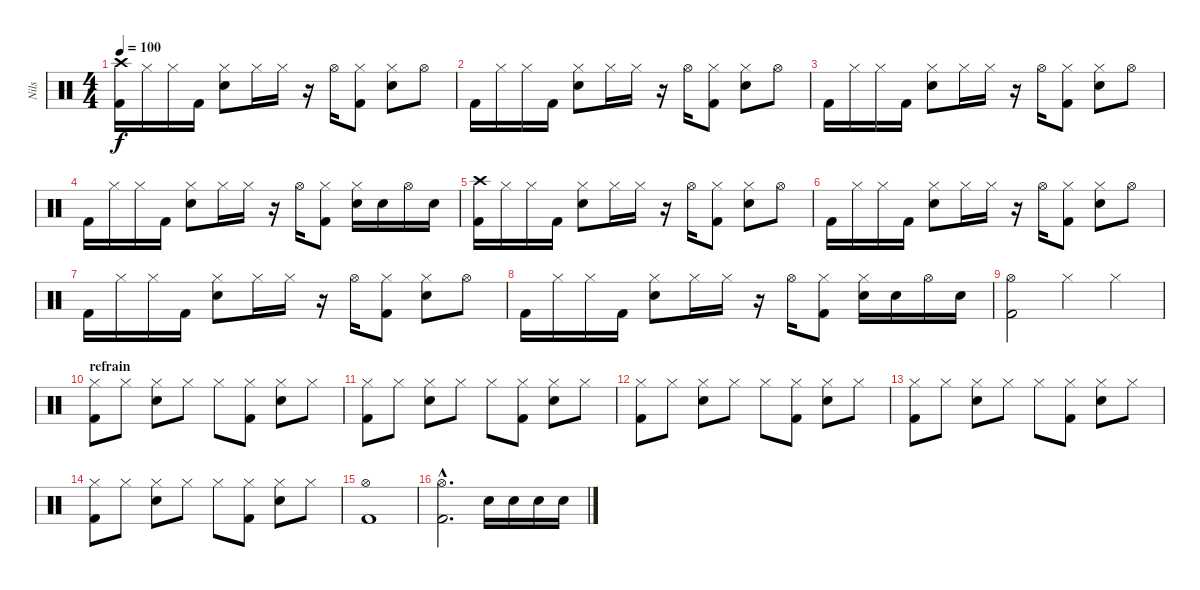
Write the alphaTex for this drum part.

\track ("Nils" "Nils") {instrument percussion}
\staff {score}
\articulation defaults
\ts (4 4)
\tempo 100
\clef neutral
\ks c
("Crash high (hit)" "Kick (hit) 2").16{dy f} "Hi-Hat (closed)".16 "Hi-Hat (closed)".16 "Kick (hit) 2".16 ("Hi-Hat (closed)" "Snare (hit) 2").8 "Hi-Hat (closed)".16 "Hi-Hat (closed)".16 r.16 "Hi-Hat (open)".16 ("Hi-Hat (closed)" "Kick (hit) 2").8 ("Hi-Hat (closed)" "Snare (hit) 2").8 "Hi-Hat (open)".8 |
"Kick (hit) 2".16 "Hi-Hat (closed)".16 "Hi-Hat (closed)".16 "Kick (hit) 2".16 ("Hi-Hat (closed)" "Snare (hit) 2").8 "Hi-Hat (closed)".16 "Hi-Hat (closed)".16 r.16 "Hi-Hat (open)".16 ("Hi-Hat (closed)" "Kick (hit) 2").8 ("Hi-Hat (closed)" "Snare (hit) 2").8 "Hi-Hat (open)".8 |
"Kick (hit) 2".16 "Hi-Hat (closed)".16 "Hi-Hat (closed)".16 "Kick (hit) 2".16 ("Hi-Hat (closed)" "Snare (hit) 2").8 "Hi-Hat (closed)".16 "Hi-Hat (closed)".16 r.16 "Hi-Hat (open)".16 ("Hi-Hat (closed)" "Kick (hit) 2").8 ("Hi-Hat (closed)" "Snare (hit) 2").8 "Hi-Hat (open)".8 |
"Kick (hit) 2".16 "Hi-Hat (closed)".16 "Hi-Hat (closed)".16 "Kick (hit) 2".16 ("Hi-Hat (closed)" "Snare (hit) 2").8 "Hi-Hat (closed)".16 "Hi-Hat (closed)".16 r.16 "Hi-Hat (open)".16 ("Hi-Hat (closed)" "Kick (hit) 2").8 ("Hi-Hat (closed)" "Snare (hit) 2").16 "Snare (hit) 2".16 "Hi-Hat (open)".16 "Snare (hit) 2".16 |
("Crash high (hit)" "Kick (hit) 2").16 "Hi-Hat (closed)".16 "Hi-Hat (closed)".16 "Kick (hit) 2".16 ("Hi-Hat (closed)" "Snare (hit) 2").8 "Hi-Hat (closed)".16 "Hi-Hat (closed)".16 r.16 "Hi-Hat (open)".16 ("Hi-Hat (closed)" "Kick (hit) 2").8 ("Hi-Hat (closed)" "Snare (hit) 2").8 "Hi-Hat (open)".8 |
"Kick (hit) 2".16 "Hi-Hat (closed)".16 "Hi-Hat (closed)".16 "Kick (hit) 2".16 ("Hi-Hat (closed)" "Snare (hit) 2").8 "Hi-Hat (closed)".16 "Hi-Hat (closed)".16 r.16 "Hi-Hat (open)".16 ("Hi-Hat (closed)" "Kick (hit) 2").8 ("Hi-Hat (closed)" "Snare (hit) 2").8 "Hi-Hat (open)".8 |
"Kick (hit) 2".16 "Hi-Hat (closed)".16 "Hi-Hat (closed)".16 "Kick (hit) 2".16 ("Hi-Hat (closed)" "Snare (hit) 2").8 "Hi-Hat (closed)".16 "Hi-Hat (closed)".16 r.16 "Hi-Hat (open)".16 ("Hi-Hat (closed)" "Kick (hit) 2").8 ("Hi-Hat (closed)" "Snare (hit) 2").8 "Hi-Hat (open)".8 |
"Kick (hit) 2".16 "Hi-Hat (closed)".16 "Hi-Hat (closed)".16 "Kick (hit) 2".16 ("Hi-Hat (closed)" "Snare (hit) 2").8 "Hi-Hat (closed)".16 "Hi-Hat (closed)".16 r.16 "Hi-Hat (open)".16 ("Hi-Hat (closed)" "Kick (hit) 2").8 ("Hi-Hat (closed)" "Snare (hit) 2").16 "Snare (hit) 2".16 "Hi-Hat (open)".16 "Snare (hit) 2".16 |
("Hi-Hat (open)" "Kick (hit) 2").2 "Hi-Hat (closed)".4 "Hi-Hat (closed)".4 |
\section ("" "refrain")
("Hi-Hat (closed)" "Kick (hit) 2").8 "Hi-Hat (closed)".8 ("Hi-Hat (closed)" "Snare (hit) 2").8 "Hi-Hat (closed)".8 "Hi-Hat (closed)".8 ("Hi-Hat (closed)" "Kick (hit) 2").8 ("Hi-Hat (closed)" "Snare (hit) 2").8 "Hi-Hat (closed)".8 |
("Hi-Hat (closed)" "Kick (hit) 2").8 "Hi-Hat (closed)".8 ("Hi-Hat (closed)" "Snare (hit) 2").8 "Hi-Hat (closed)".8 "Hi-Hat (closed)".8 ("Hi-Hat (closed)" "Kick (hit) 2").8 ("Hi-Hat (closed)" "Snare (hit) 2").8 "Hi-Hat (closed)".8 |
("Hi-Hat (closed)" "Kick (hit) 2").8 "Hi-Hat (closed)".8 ("Hi-Hat (closed)" "Snare (hit) 2").8 "Hi-Hat (closed)".8 "Hi-Hat (closed)".8 ("Hi-Hat (closed)" "Kick (hit) 2").8 ("Hi-Hat (closed)" "Snare (hit) 2").8 "Hi-Hat (closed)".8 |
("Hi-Hat (closed)" "Kick (hit) 2").8 "Hi-Hat (closed)".8 ("Hi-Hat (closed)" "Snare (hit) 2").8 "Hi-Hat (closed)".8 "Hi-Hat (closed)".8 ("Hi-Hat (closed)" "Kick (hit) 2").8 ("Hi-Hat (closed)" "Snare (hit) 2").8 "Hi-Hat (closed)".8 |
("Hi-Hat (closed)" "Kick (hit) 2").8 "Hi-Hat (closed)".8 ("Hi-Hat (closed)" "Snare (hit) 2").8 "Hi-Hat (closed)".8 "Hi-Hat (closed)".8 ("Hi-Hat (closed)" "Kick (hit) 2").8 ("Hi-Hat (closed)" "Snare (hit) 2").8 "Hi-Hat (closed)".8 |
("Hi-Hat (open)" "Kick (hit) 2").1 |
("Hi-Hat (open)"{hac} "Kick (hit) 2"{hac}).2{d} "Snare (hit) 2".16 "Snare (hit) 2".16 "Snare (hit) 2".16 "Snare (hit) 2".16
